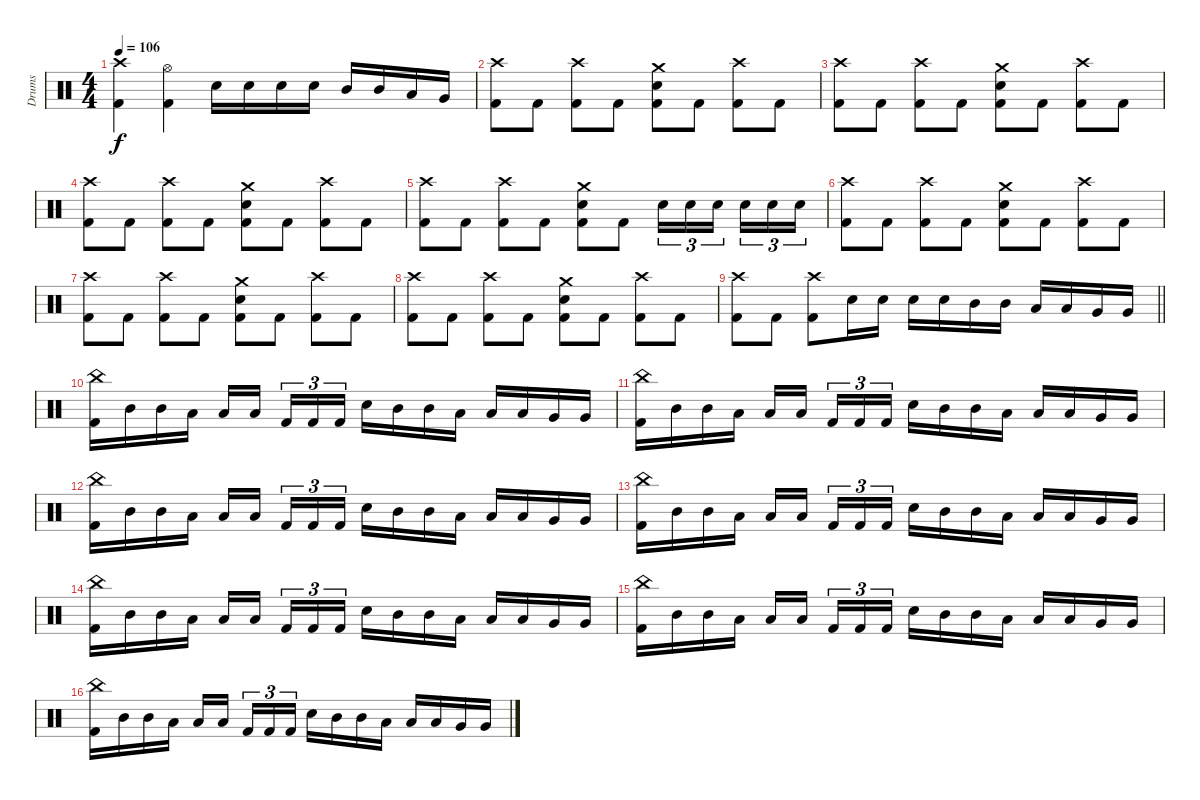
\track ("Drums" "Drums") {instrument percussion}
\staff {score}
\articulation defaults
\ts (4 4)
\tempo 106
\clef neutral
\ks c
("Crash high (hit)" "Kick (hit) 2").4{dy f} ("Hi-Hat (open)" "Kick (hit) 2").4 "Electric Snare (hit)".16 "Electric Snare (hit)".16 "Electric Snare (hit)".16 "Electric Snare (hit)".16 "Mid Tom (hit)".16 "Mid Tom (hit)".16 "Low Tom (hit)".16 "Very Low Tom (hit)".16 |
("Crash high (hit)" "Kick (hit) 2").8 "Kick (hit) 2".8 ("Crash high (hit)" "Kick (hit) 2").8 "Kick (hit) 2".8 ("Crash medium (hit)" "Electric Snare (hit)" "Kick (hit) 2").8 "Kick (hit) 2".8 ("Crash high (hit)" "Kick (hit) 2").8 "Kick (hit) 2".8 |
("Crash high (hit)" "Kick (hit) 2").8 "Kick (hit) 2".8 ("Crash high (hit)" "Kick (hit) 2").8 "Kick (hit) 2".8 ("Crash medium (hit)" "Electric Snare (hit)" "Kick (hit) 2").8 "Kick (hit) 2".8 ("Crash high (hit)" "Kick (hit) 2").8 "Kick (hit) 2".8 |
("Crash high (hit)" "Kick (hit) 2").8 "Kick (hit) 2".8 ("Crash high (hit)" "Kick (hit) 2").8 "Kick (hit) 2".8 ("Crash medium (hit)" "Electric Snare (hit)" "Kick (hit) 2").8 "Kick (hit) 2".8 ("Crash high (hit)" "Kick (hit) 2").8 "Kick (hit) 2".8 |
("Crash high (hit)" "Kick (hit) 2").8 "Kick (hit) 2".8 ("Crash high (hit)" "Kick (hit) 2").8 "Kick (hit) 2".8 ("Crash medium (hit)" "Electric Snare (hit)" "Kick (hit) 2").8 "Kick (hit) 2".8 "Electric Snare (hit)".16{tu (3 2)} "Electric Snare (hit)".16{tu (3 2)} "Electric Snare (hit)".16{tu (3 2)} "Electric Snare (hit)".16{tu (3 2)} "Electric Snare (hit)".16{tu (3 2)} "Electric Snare (hit)".16{tu (3 2)} |
("Crash high (hit)" "Kick (hit) 2").8 "Kick (hit) 2".8 ("Crash high (hit)" "Kick (hit) 2").8 "Kick (hit) 2".8 ("Crash medium (hit)" "Electric Snare (hit)" "Kick (hit) 2").8 "Kick (hit) 2".8 ("Crash high (hit)" "Kick (hit) 2").8 "Kick (hit) 2".8 |
("Crash high (hit)" "Kick (hit) 2").8 "Kick (hit) 2".8 ("Crash high (hit)" "Kick (hit) 2").8 "Kick (hit) 2".8 ("Crash medium (hit)" "Electric Snare (hit)" "Kick (hit) 2").8 "Kick (hit) 2".8 ("Crash high (hit)" "Kick (hit) 2").8 "Kick (hit) 2".8 |
("Crash high (hit)" "Kick (hit) 2").8 "Kick (hit) 2".8 ("Crash high (hit)" "Kick (hit) 2").8 "Kick (hit) 2".8 ("Crash medium (hit)" "Electric Snare (hit)" "Kick (hit) 2").8 "Kick (hit) 2".8 ("Crash high (hit)" "Kick (hit) 2").8 "Kick (hit) 2".8 |
\barLineRight lightlight
("Crash high (hit)" "Kick (hit) 2").8 "Kick (hit) 2".8 ("Crash high (hit)" "Kick (hit) 2").8 "Electric Snare (hit)".16 "Electric Snare (hit)".16 "Electric Snare (hit)".16 "Electric Snare (hit)".16 "Mid Tom (hit)".16 "Mid Tom (hit)".16 "Low Tom (hit)".16 "Low Tom (hit)".16 "Very Low Tom (hit)".16 "Very Low Tom (hit)".16 |
\section ("" "")
("China (hit)" "Kick (hit) 2").16 "Mid Tom (hit)".16 "Mid Tom (hit)".16 "Low Tom (hit)".16 "Low Tom (hit)".16 "Low Tom (hit)".16 "Kick (hit) 2".16{tu (3 2)} "Kick (hit) 2".16{tu (3 2)} "Kick (hit) 2".16{tu (3 2)} "Electric Snare (hit)".16 "Mid Tom (hit)".16 "Mid Tom (hit)".16 "Low Tom (hit)".16 "Low Tom (hit)".16 "Low Tom (hit)".16 "Very Low Tom (hit)".16 "Very Low Tom (hit)".16 |
("China (hit)" "Kick (hit) 2").16 "Mid Tom (hit)".16 "Mid Tom (hit)".16 "Low Tom (hit)".16 "Low Tom (hit)".16 "Low Tom (hit)".16 "Kick (hit) 2".16{tu (3 2)} "Kick (hit) 2".16{tu (3 2)} "Kick (hit) 2".16{tu (3 2)} "Electric Snare (hit)".16 "Mid Tom (hit)".16 "Mid Tom (hit)".16 "Low Tom (hit)".16 "Low Tom (hit)".16 "Low Tom (hit)".16 "Very Low Tom (hit)".16 "Very Low Tom (hit)".16 |
("China (hit)" "Kick (hit) 2").16 "Mid Tom (hit)".16 "Mid Tom (hit)".16 "Low Tom (hit)".16 "Low Tom (hit)".16 "Low Tom (hit)".16 "Kick (hit) 2".16{tu (3 2)} "Kick (hit) 2".16{tu (3 2)} "Kick (hit) 2".16{tu (3 2)} "Electric Snare (hit)".16 "Mid Tom (hit)".16 "Mid Tom (hit)".16 "Low Tom (hit)".16 "Low Tom (hit)".16 "Low Tom (hit)".16 "Very Low Tom (hit)".16 "Very Low Tom (hit)".16 |
("China (hit)" "Kick (hit) 2").16 "Mid Tom (hit)".16 "Mid Tom (hit)".16 "Low Tom (hit)".16 "Low Tom (hit)".16 "Low Tom (hit)".16 "Kick (hit) 2".16{tu (3 2)} "Kick (hit) 2".16{tu (3 2)} "Kick (hit) 2".16{tu (3 2)} "Electric Snare (hit)".16 "Mid Tom (hit)".16 "Mid Tom (hit)".16 "Low Tom (hit)".16 "Low Tom (hit)".16 "Low Tom (hit)".16 "Very Low Tom (hit)".16 "Very Low Tom (hit)".16 |
("China (hit)" "Kick (hit) 2").16 "Mid Tom (hit)".16 "Mid Tom (hit)".16 "Low Tom (hit)".16 "Low Tom (hit)".16 "Low Tom (hit)".16 "Kick (hit) 2".16{tu (3 2)} "Kick (hit) 2".16{tu (3 2)} "Kick (hit) 2".16{tu (3 2)} "Electric Snare (hit)".16 "Mid Tom (hit)".16 "Mid Tom (hit)".16 "Low Tom (hit)".16 "Low Tom (hit)".16 "Low Tom (hit)".16 "Very Low Tom (hit)".16 "Very Low Tom (hit)".16 |
("China (hit)" "Kick (hit) 2").16 "Mid Tom (hit)".16 "Mid Tom (hit)".16 "Low Tom (hit)".16 "Low Tom (hit)".16 "Low Tom (hit)".16 "Kick (hit) 2".16{tu (3 2)} "Kick (hit) 2".16{tu (3 2)} "Kick (hit) 2".16{tu (3 2)} "Electric Snare (hit)".16 "Mid Tom (hit)".16 "Mid Tom (hit)".16 "Low Tom (hit)".16 "Low Tom (hit)".16 "Low Tom (hit)".16 "Very Low Tom (hit)".16 "Very Low Tom (hit)".16 |
("China (hit)" "Kick (hit) 2").16 "Mid Tom (hit)".16 "Mid Tom (hit)".16 "Low Tom (hit)".16 "Low Tom (hit)".16 "Low Tom (hit)".16 "Kick (hit) 2".16{tu (3 2)} "Kick (hit) 2".16{tu (3 2)} "Kick (hit) 2".16{tu (3 2)} "Electric Snare (hit)".16 "Mid Tom (hit)".16 "Mid Tom (hit)".16 "Low Tom (hit)".16 "Low Tom (hit)".16 "Low Tom (hit)".16 "Very Low Tom (hit)".16 "Very Low Tom (hit)".16
